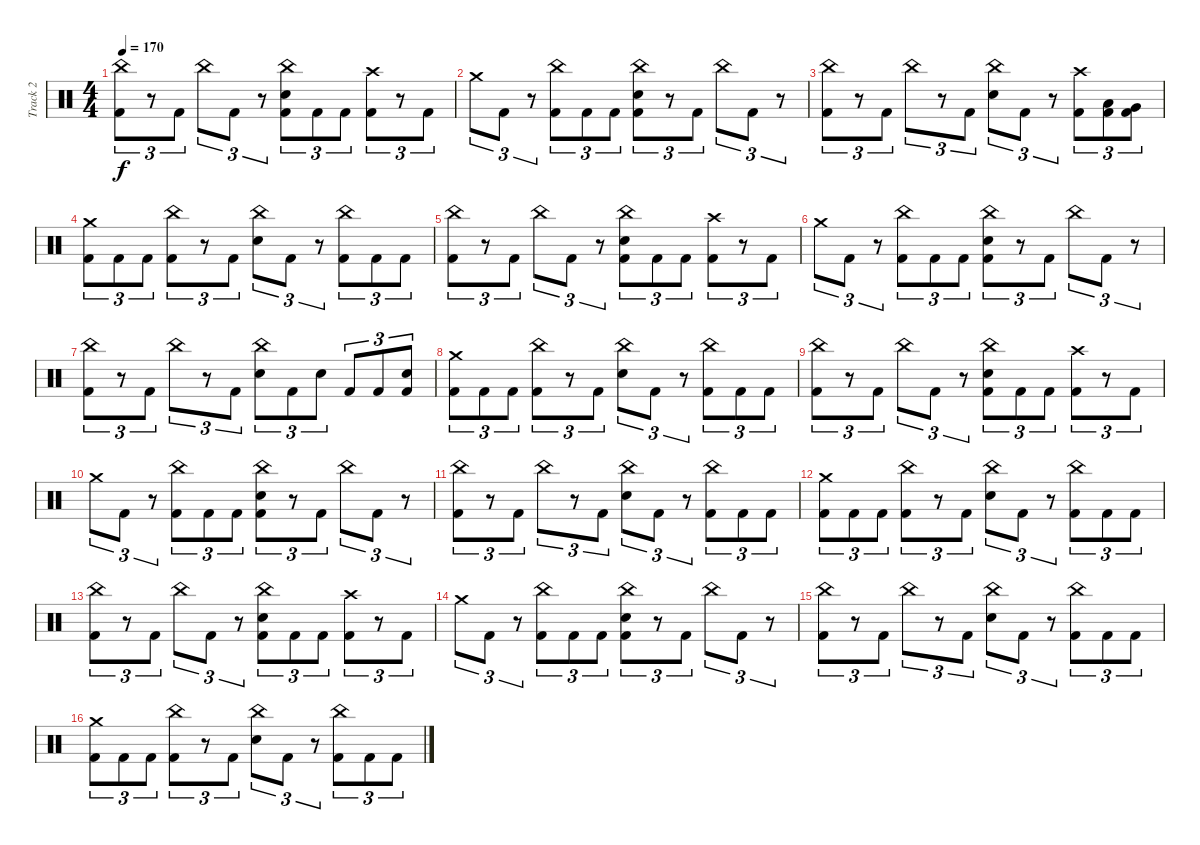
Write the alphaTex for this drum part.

\track ("Track 2" "Track 2") {instrument percussion}
\staff {score}
\articulation defaults
\ts (4 4)
\tempo 170
\clef neutral
\ks c
("China (hit)" "Kick (hit) 2").8{tu (3 2) dy f} r.8{tu (3 2)} "Kick (hit) 2".8{tu (3 2)} "China (hit)".8{tu (3 2)} "Kick (hit) 2".8{tu (3 2)} r.8{tu (3 2)} ("China (hit)" "Electric Snare (hit)" "Kick (hit) 2").8{tu (3 2)} "Kick (hit) 2".8{tu (3 2)} "Kick (hit) 2".8{tu (3 2)} ("Crash high (hit)" "Kick (hit) 2").8{tu (3 2)} r.8{tu (3 2)} "Kick (hit) 2".8{tu (3 2)} |
"Crash medium (hit)".8{tu (3 2)} "Kick (hit) 2".8{tu (3 2)} r.8{tu (3 2)} ("China (hit)" "Kick (hit) 2").8{tu (3 2)} "Kick (hit) 2".8{tu (3 2)} "Kick (hit) 2".8{tu (3 2)} ("China (hit)" "Electric Snare (hit)" "Kick (hit) 2").8{tu (3 2)} r.8{tu (3 2)} "Kick (hit) 2".8{tu (3 2)} "China (hit)".8{tu (3 2)} "Kick (hit) 2".8{tu (3 2)} r.8{tu (3 2)} |
("China (hit)" "Kick (hit) 2").8{tu (3 2)} r.8{tu (3 2)} "Kick (hit) 2".8{tu (3 2)} "China (hit)".8{tu (3 2)} r.8{tu (3 2)} "Kick (hit) 2".8{tu (3 2)} ("China (hit)" "Electric Snare (hit)").8{tu (3 2)} "Kick (hit) 2".8{tu (3 2)} r.8{tu (3 2)} ("Crash high (hit)" "Kick (hit) 2").8{tu (3 2)} ("Low Tom (hit)" "Kick (hit) 2").8{tu (3 2)} ("Very Low Tom (hit)" "Kick (hit) 2").8{tu (3 2)} |
("Crash medium (hit)" "Kick (hit) 2").8{tu (3 2)} "Kick (hit) 2".8{tu (3 2)} "Kick (hit) 2".8{tu (3 2)} ("China (hit)" "Kick (hit) 2").8{tu (3 2)} r.8{tu (3 2)} "Kick (hit) 2".8{tu (3 2)} ("China (hit)" "Electric Snare (hit)").8{tu (3 2)} "Kick (hit) 2".8{tu (3 2)} r.8{tu (3 2)} ("China (hit)" "Kick (hit) 2").8{tu (3 2)} "Kick (hit) 2".8{tu (3 2)} "Kick (hit) 2".8{tu (3 2)} |
("China (hit)" "Kick (hit) 2").8{tu (3 2)} r.8{tu (3 2)} "Kick (hit) 2".8{tu (3 2)} "China (hit)".8{tu (3 2)} "Kick (hit) 2".8{tu (3 2)} r.8{tu (3 2)} ("China (hit)" "Electric Snare (hit)" "Kick (hit) 2").8{tu (3 2)} "Kick (hit) 2".8{tu (3 2)} "Kick (hit) 2".8{tu (3 2)} ("Crash high (hit)" "Kick (hit) 2").8{tu (3 2)} r.8{tu (3 2)} "Kick (hit) 2".8{tu (3 2)} |
"Crash medium (hit)".8{tu (3 2)} "Kick (hit) 2".8{tu (3 2)} r.8{tu (3 2)} ("China (hit)" "Kick (hit) 2").8{tu (3 2)} "Kick (hit) 2".8{tu (3 2)} "Kick (hit) 2".8{tu (3 2)} ("China (hit)" "Electric Snare (hit)" "Kick (hit) 2").8{tu (3 2)} r.8{tu (3 2)} "Kick (hit) 2".8{tu (3 2)} "China (hit)".8{tu (3 2)} "Kick (hit) 2".8{tu (3 2)} r.8{tu (3 2)} |
("China (hit)" "Kick (hit) 2").8{tu (3 2)} r.8{tu (3 2)} "Kick (hit) 2".8{tu (3 2)} "China (hit)".8{tu (3 2)} r.8{tu (3 2)} "Kick (hit) 2".8{tu (3 2)} ("China (hit)" "Electric Snare (hit)").8{tu (3 2)} "Kick (hit) 2".8{tu (3 2)} "Electric Snare (hit)".8{tu (3 2)} "Kick (hit) 2".8{tu (3 2)} "Kick (hit) 2".8{tu (3 2)} ("Electric Snare (hit)" "Kick (hit) 2").8{tu (3 2)} |
("Crash medium (hit)" "Kick (hit) 2").8{tu (3 2)} "Kick (hit) 2".8{tu (3 2)} "Kick (hit) 2".8{tu (3 2)} ("China (hit)" "Kick (hit) 2").8{tu (3 2)} r.8{tu (3 2)} "Kick (hit) 2".8{tu (3 2)} ("China (hit)" "Electric Snare (hit)").8{tu (3 2)} "Kick (hit) 2".8{tu (3 2)} r.8{tu (3 2)} ("China (hit)" "Kick (hit) 2").8{tu (3 2)} "Kick (hit) 2".8{tu (3 2)} "Kick (hit) 2".8{tu (3 2)} |
("China (hit)" "Kick (hit) 2").8{tu (3 2)} r.8{tu (3 2)} "Kick (hit) 2".8{tu (3 2)} "China (hit)".8{tu (3 2)} "Kick (hit) 2".8{tu (3 2)} r.8{tu (3 2)} ("China (hit)" "Electric Snare (hit)" "Kick (hit) 2").8{tu (3 2)} "Kick (hit) 2".8{tu (3 2)} "Kick (hit) 2".8{tu (3 2)} ("Crash high (hit)" "Kick (hit) 2").8{tu (3 2)} r.8{tu (3 2)} "Kick (hit) 2".8{tu (3 2)} |
"Crash medium (hit)".8{tu (3 2)} "Kick (hit) 2".8{tu (3 2)} r.8{tu (3 2)} ("China (hit)" "Kick (hit) 2").8{tu (3 2)} "Kick (hit) 2".8{tu (3 2)} "Kick (hit) 2".8{tu (3 2)} ("China (hit)" "Electric Snare (hit)" "Kick (hit) 2").8{tu (3 2)} r.8{tu (3 2)} "Kick (hit) 2".8{tu (3 2)} "China (hit)".8{tu (3 2)} "Kick (hit) 2".8{tu (3 2)} r.8{tu (3 2)} |
("China (hit)" "Kick (hit) 2").8{tu (3 2)} r.8{tu (3 2)} "Kick (hit) 2".8{tu (3 2)} "China (hit)".8{tu (3 2)} r.8{tu (3 2)} "Kick (hit) 2".8{tu (3 2)} ("China (hit)" "Electric Snare (hit)").8{tu (3 2)} "Kick (hit) 2".8{tu (3 2)} r.8{tu (3 2)} ("China (hit)" "Kick (hit) 2").8{tu (3 2)} "Kick (hit) 2".8{tu (3 2)} "Kick (hit) 2".8{tu (3 2)} |
("Crash medium (hit)" "Kick (hit) 2").8{tu (3 2)} "Kick (hit) 2".8{tu (3 2)} "Kick (hit) 2".8{tu (3 2)} ("China (hit)" "Kick (hit) 2").8{tu (3 2)} r.8{tu (3 2)} "Kick (hit) 2".8{tu (3 2)} ("China (hit)" "Electric Snare (hit)").8{tu (3 2)} "Kick (hit) 2".8{tu (3 2)} r.8{tu (3 2)} ("China (hit)" "Kick (hit) 2").8{tu (3 2)} "Kick (hit) 2".8{tu (3 2)} "Kick (hit) 2".8{tu (3 2)} |
("China (hit)" "Kick (hit) 2").8{tu (3 2)} r.8{tu (3 2)} "Kick (hit) 2".8{tu (3 2)} "China (hit)".8{tu (3 2)} "Kick (hit) 2".8{tu (3 2)} r.8{tu (3 2)} ("China (hit)" "Electric Snare (hit)" "Kick (hit) 2").8{tu (3 2)} "Kick (hit) 2".8{tu (3 2)} "Kick (hit) 2".8{tu (3 2)} ("Crash high (hit)" "Kick (hit) 2").8{tu (3 2)} r.8{tu (3 2)} "Kick (hit) 2".8{tu (3 2)} |
"Crash medium (hit)".8{tu (3 2)} "Kick (hit) 2".8{tu (3 2)} r.8{tu (3 2)} ("China (hit)" "Kick (hit) 2").8{tu (3 2)} "Kick (hit) 2".8{tu (3 2)} "Kick (hit) 2".8{tu (3 2)} ("China (hit)" "Electric Snare (hit)" "Kick (hit) 2").8{tu (3 2)} r.8{tu (3 2)} "Kick (hit) 2".8{tu (3 2)} "China (hit)".8{tu (3 2)} "Kick (hit) 2".8{tu (3 2)} r.8{tu (3 2)} |
("China (hit)" "Kick (hit) 2").8{tu (3 2)} r.8{tu (3 2)} "Kick (hit) 2".8{tu (3 2)} "China (hit)".8{tu (3 2)} r.8{tu (3 2)} "Kick (hit) 2".8{tu (3 2)} ("China (hit)" "Electric Snare (hit)").8{tu (3 2)} "Kick (hit) 2".8{tu (3 2)} r.8{tu (3 2)} ("China (hit)" "Kick (hit) 2").8{tu (3 2)} "Kick (hit) 2".8{tu (3 2)} "Kick (hit) 2".8{tu (3 2)} |
("Crash medium (hit)" "Kick (hit) 2").8{tu (3 2)} "Kick (hit) 2".8{tu (3 2)} "Kick (hit) 2".8{tu (3 2)} ("China (hit)" "Kick (hit) 2").8{tu (3 2)} r.8{tu (3 2)} "Kick (hit) 2".8{tu (3 2)} ("China (hit)" "Electric Snare (hit)").8{tu (3 2)} "Kick (hit) 2".8{tu (3 2)} r.8{tu (3 2)} ("China (hit)" "Kick (hit) 2").8{tu (3 2)} "Kick (hit) 2".8{tu (3 2)} "Kick (hit) 2".8{tu (3 2)}
